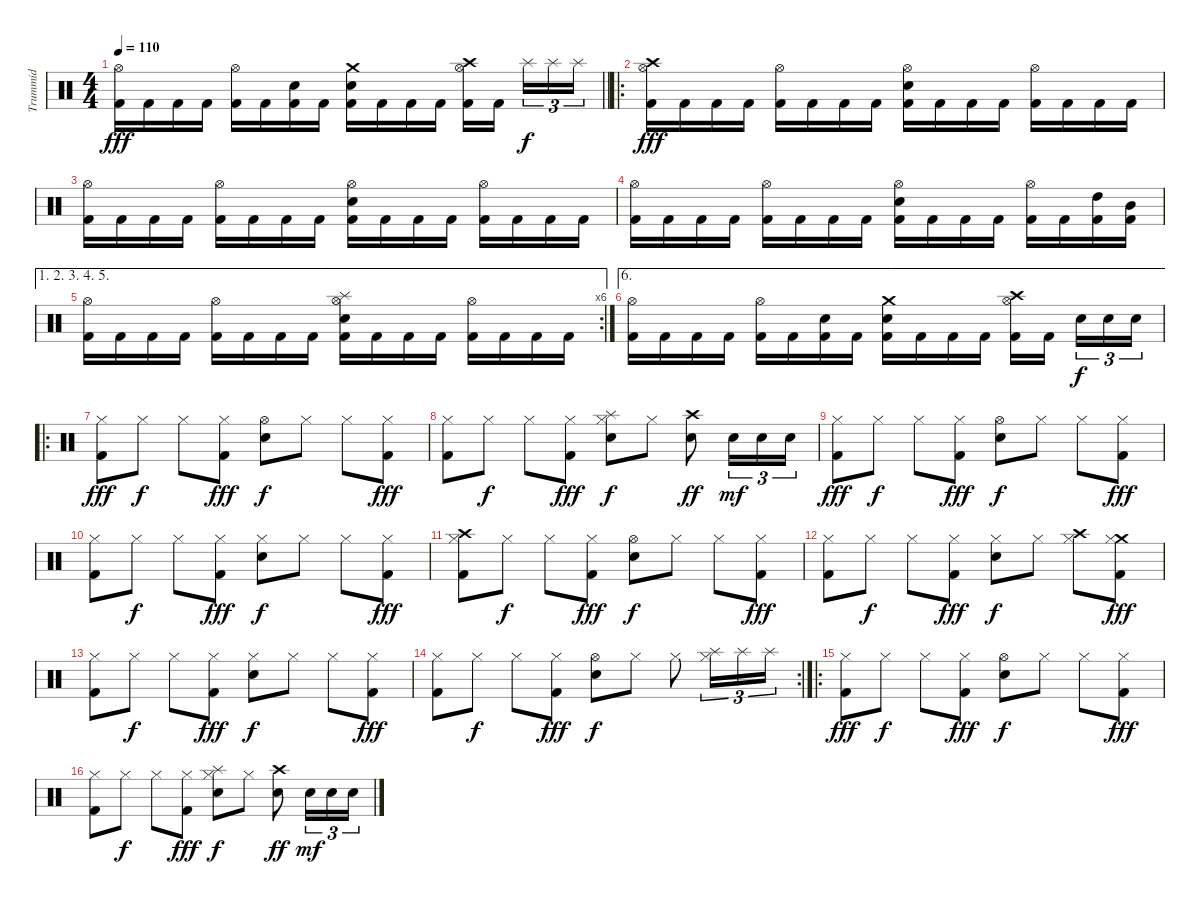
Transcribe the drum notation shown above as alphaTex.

\track ("Trummid" "Trummid") {instrument percussion}
\staff {score}
\articulation defaults
\ts (4 4)
\tempo 110
\clef neutral
\barLineRight lightlight
\ks c
("Hi-Hat (open)" "Kick (hit) 2").16{dy fff} "Kick (hit) 2".16 "Kick (hit) 2".16 "Kick (hit) 2".16 ("Hi-Hat (open)" "Kick (hit) 2").16 "Kick (hit) 2".16 ("Snare (hit) 2" "Kick (hit) 2").16 "Kick (hit) 2".16 ("Crash medium (hit)" "Snare (hit) 2" "Kick (hit) 2").16 "Kick (hit) 2".16 "Kick (hit) 2".16 "Kick (hit) 2".16 ("Crash high (hit)" "Hi-Hat (open)" "Kick (hit) 2").16 "Kick (hit) 2".16{beam splitsecondary} "Splash (hit)".16{tu (3 2) dy f} "Splash (hit)".16{tu (3 2)} "Splash (hit)".16{tu (3 2)} |
\ro
("Crash high (hit)" "Hi-Hat (open)" "Kick (hit) 2").16{dy fff} "Kick (hit) 2".16 "Kick (hit) 2".16 "Kick (hit) 2".16 ("Hi-Hat (open)" "Kick (hit) 2").16 "Kick (hit) 2".16 "Kick (hit) 2".16 "Kick (hit) 2".16 ("Hi-Hat (open)" "Snare (hit) 2" "Kick (hit) 2").16 "Kick (hit) 2".16 "Kick (hit) 2".16 "Kick (hit) 2".16 ("Hi-Hat (open)" "Kick (hit) 2").16 "Kick (hit) 2".16 "Kick (hit) 2".16 "Kick (hit) 2".16 |
("Hi-Hat (open)" "Kick (hit) 2").16 "Kick (hit) 2".16 "Kick (hit) 2".16 "Kick (hit) 2".16 ("Hi-Hat (open)" "Kick (hit) 2").16 "Kick (hit) 2".16 "Kick (hit) 2".16 "Kick (hit) 2".16 ("Hi-Hat (open)" "Snare (hit) 2" "Kick (hit) 2").16 "Kick (hit) 2".16 "Kick (hit) 2".16 "Kick (hit) 2".16 ("Hi-Hat (open)" "Kick (hit) 2").16 "Kick (hit) 2".16 "Kick (hit) 2".16 "Kick (hit) 2".16 |
("Hi-Hat (open)" "Kick (hit) 2").16 "Kick (hit) 2".16 "Kick (hit) 2".16 "Kick (hit) 2".16 ("Hi-Hat (open)" "Kick (hit) 2").16 "Kick (hit) 2".16 "Kick (hit) 2".16 "Kick (hit) 2".16 ("Hi-Hat (open)" "Snare (hit) 2" "Kick (hit) 2").16 "Kick (hit) 2".16 "Kick (hit) 2".16 "Kick (hit) 2".16 ("Hi-Hat (open)" "Kick (hit) 2").16 "Kick (hit) 2".16 ("High Tom (hit)" "Kick (hit) 2").16 ("Mid Tom (hit)" "Kick (hit) 2").16 |
\ae (1 2 3 4 5)
\rc 6
("Hi-Hat (open)" "Kick (hit) 2").16 "Kick (hit) 2".16 "Kick (hit) 2".16 "Kick (hit) 2".16 ("Hi-Hat (open)" "Kick (hit) 2").16 "Kick (hit) 2".16 "Kick (hit) 2".16 "Kick (hit) 2".16 ("Splash (hit)" "Hi-Hat (open)" "Snare (hit) 2" "Kick (hit) 2").16 "Kick (hit) 2".16 "Kick (hit) 2".16 "Kick (hit) 2".16 ("Hi-Hat (open)" "Kick (hit) 2").16 "Kick (hit) 2".16 "Kick (hit) 2".16 "Kick (hit) 2".16 |
\ae 6
("Hi-Hat (open)" "Kick (hit) 2").16 "Kick (hit) 2".16 "Kick (hit) 2".16 "Kick (hit) 2".16 ("Hi-Hat (open)" "Kick (hit) 2").16 "Kick (hit) 2".16 ("Snare (hit) 2" "Kick (hit) 2").16 "Kick (hit) 2".16 ("Crash medium (hit)" "Snare (hit) 2" "Kick (hit) 2").16 "Kick (hit) 2".16 "Kick (hit) 2".16 "Kick (hit) 2".16 ("Crash high (hit)" "Hi-Hat (open)" "Kick (hit) 2").16 "Kick (hit) 2".16{beam splitsecondary} "Snare (hit) 2".16{tu (3 2) dy f} "Snare (hit) 2".16{tu (3 2)} "Snare (hit) 2".16{tu (3 2)} |
\ro
("Hi-Hat (closed)" "Kick (hit) 2").8{dy fff} "Hi-Hat (closed)".8{dy f} "Hi-Hat (closed)".8 ("Hi-Hat (closed)" "Kick (hit) 2").8{dy fff} ("Snare (hit) 2" "Hi-Hat (open)").8{dy f} "Hi-Hat (closed)".8 "Hi-Hat (closed)".8 ("Hi-Hat (closed)" "Kick (hit) 2").8{dy fff} |
("Hi-Hat (closed)" "Kick (hit) 2").8 "Hi-Hat (closed)".8{dy f} "Hi-Hat (closed)".8 ("Hi-Hat (closed)" "Kick (hit) 2").8{dy fff} ("Splash (hit)" "Snare (hit) 2" "Hi-Hat (closed)").8{dy f} "Hi-Hat (closed)".8 ("Crash high (hit)" "Snare (hit) 2").8{dy ff} "Snare (hit) 2".16{tu (3 2) dy mf} "Snare (hit) 2".16{tu (3 2)} "Snare (hit) 2".16{tu (3 2)} |
("Hi-Hat (closed)" "Kick (hit) 2").8{dy fff} "Hi-Hat (closed)".8{dy f} "Hi-Hat (closed)".8 ("Hi-Hat (closed)" "Kick (hit) 2").8{dy fff} ("Snare (hit) 2" "Hi-Hat (open)").8{dy f} "Hi-Hat (closed)".8 "Hi-Hat (closed)".8 ("Hi-Hat (closed)" "Kick (hit) 2").8{dy fff} |
("Hi-Hat (closed)" "Kick (hit) 2").8 "Hi-Hat (closed)".8{dy f} "Hi-Hat (closed)".8 ("Hi-Hat (closed)" "Kick (hit) 2").8{dy fff} ("Snare (hit) 2" "Hi-Hat (closed)").8{dy f} "Hi-Hat (closed)".8 "Hi-Hat (closed)".8 ("Hi-Hat (closed)" "Kick (hit) 2").8{dy fff} |
("Crash high (hit)" "Hi-Hat (closed)" "Kick (hit) 2").8 "Hi-Hat (closed)".8{dy f} "Hi-Hat (closed)".8 ("Hi-Hat (closed)" "Kick (hit) 2").8{dy fff} ("Snare (hit) 2" "Hi-Hat (open)").8{dy f} "Hi-Hat (closed)".8 "Hi-Hat (closed)".8 ("Hi-Hat (closed)" "Kick (hit) 2").8{dy fff} |
("Hi-Hat (closed)" "Kick (hit) 2").8 "Hi-Hat (closed)".8{dy f} "Hi-Hat (closed)".8 ("Hi-Hat (closed)" "Kick (hit) 2").8{dy fff} ("Snare (hit) 2" "Hi-Hat (closed)").8{dy f} "Hi-Hat (closed)".8 ("Crash high (hit)" "Hi-Hat (closed)").8 ("Crash medium (hit)" "Hi-Hat (closed)" "Kick (hit) 2").8{dy fff} |
("Hi-Hat (closed)" "Kick (hit) 2").8 "Hi-Hat (closed)".8{dy f} "Hi-Hat (closed)".8 ("Hi-Hat (closed)" "Kick (hit) 2").8{dy fff} ("Snare (hit) 2" "Hi-Hat (closed)").8{dy f} "Hi-Hat (closed)".8 "Hi-Hat (closed)".8 ("Hi-Hat (closed)" "Kick (hit) 2").8{dy fff} |
\rc 2
("Hi-Hat (closed)" "Kick (hit) 2").8 "Hi-Hat (closed)".8{dy f} "Hi-Hat (closed)".8 ("Hi-Hat (closed)" "Kick (hit) 2").8{dy fff} ("Snare (hit) 2" "Hi-Hat (open)").8{dy f} "Hi-Hat (closed)".8 "Hi-Hat (closed)".8 ("Splash (hit)" "Hi-Hat (closed)").16{tu (3 2)} "Splash (hit)".16{tu (3 2)} "Splash (hit)".16{tu (3 2)} |
\ro
("Hi-Hat (closed)" "Kick (hit) 2").8{dy fff} "Hi-Hat (closed)".8{dy f} "Hi-Hat (closed)".8 ("Hi-Hat (closed)" "Kick (hit) 2").8{dy fff} ("Snare (hit) 2" "Hi-Hat (open)").8{dy f} "Hi-Hat (closed)".8 "Hi-Hat (closed)".8 ("Hi-Hat (closed)" "Kick (hit) 2").8{dy fff} |
("Hi-Hat (closed)" "Kick (hit) 2").8 "Hi-Hat (closed)".8{dy f} "Hi-Hat (closed)".8 ("Hi-Hat (closed)" "Kick (hit) 2").8{dy fff} ("Splash (hit)" "Snare (hit) 2" "Hi-Hat (closed)").8{dy f} "Hi-Hat (closed)".8 ("Crash high (hit)" "Snare (hit) 2").8{dy ff} "Snare (hit) 2".16{tu (3 2) dy mf} "Snare (hit) 2".16{tu (3 2)} "Snare (hit) 2".16{tu (3 2)}
